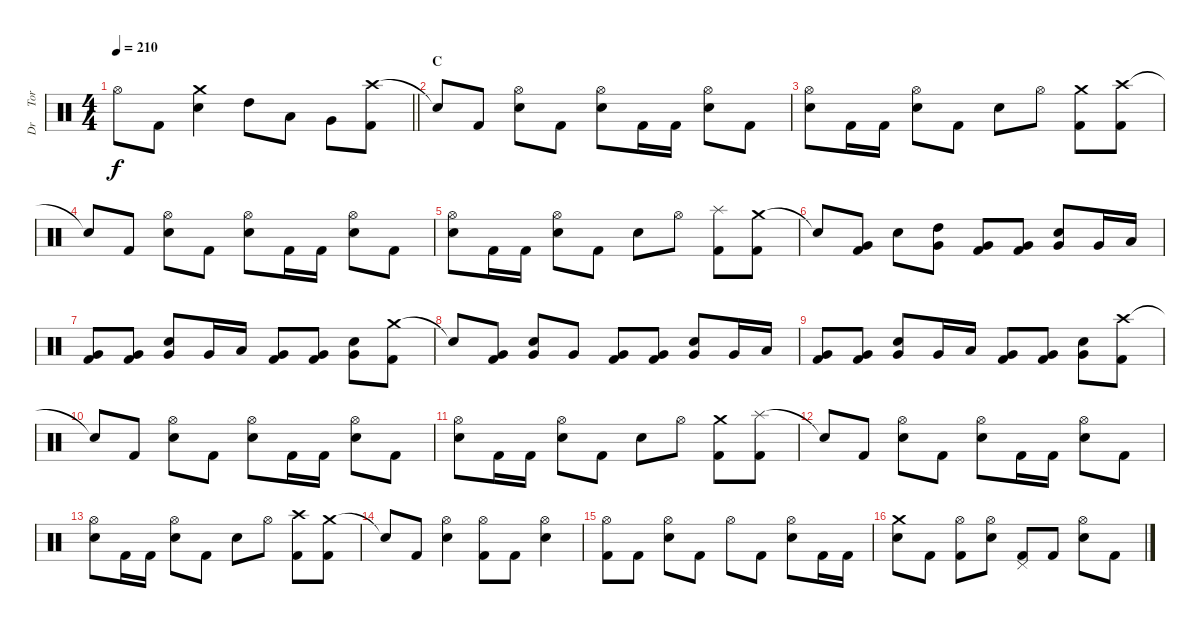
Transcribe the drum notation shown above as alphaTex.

\track ("Dr     Tora" "Dr     Tor") {instrument percussion}
\staff {score}
\articulation defaults
\ts (4 4)
\tempo 210
\clef neutral
\barLineRight lightlight
\ks c "Hi-Hat (open)".8{dy f} "Kick (hit) 2".8
("Crash medium (hit)" "Electric Snare (hit)").4 "High Tom (hit)".8 "Low Tom (hit)".8 "Very Low Tom (hit)".8 ("Crash high (hit)" "Kick (hit) 2").8 |
\section ("" "C")
"Snare (hit)"{t}.8 "Kick (hit) 2".8 ("Hi-Hat (open)" "Electric Snare (hit)").8 "Kick (hit) 2".8 ("Hi-Hat (open)" "Electric Snare (hit)").8 "Kick (hit) 2".16 "Kick (hit) 2".16 ("Hi-Hat (open)" "Electric Snare (hit)").8 "Kick (hit) 2".8 |
("Hi-Hat (open)" "Electric Snare (hit)").8 "Kick (hit) 2".16 "Kick (hit) 2".16 ("Hi-Hat (open)" "Electric Snare (hit)").8 "Kick (hit) 2".8 "Electric Snare (hit)".8 "Hi-Hat (open)".8 ("Crash medium (hit)" "Kick (hit) 2").8 ("Crash high (hit)" "Kick (hit) 2").8 |
"Snare (hit)"{t}.8 "Kick (hit) 2".8 ("Hi-Hat (open)" "Electric Snare (hit)").8 "Kick (hit) 2".8 ("Hi-Hat (open)" "Electric Snare (hit)").8 "Kick (hit) 2".16 "Kick (hit) 2".16 ("Hi-Hat (open)" "Electric Snare (hit)").8 "Kick (hit) 2".8 |
("Hi-Hat (open)" "Electric Snare (hit)").8 "Kick (hit) 2".16 "Kick (hit) 2".16 ("Hi-Hat (open)" "Electric Snare (hit)").8 "Kick (hit) 2".8 "Electric Snare (hit)".8 "Hi-Hat (open)".8 ("Splash (hit)" "Kick (hit) 2").8 ("Crash medium (hit)" "Kick (hit) 2").8 |
"Snare (hit)"{t}.8 ("Very Low Tom (hit)" "Kick (hit) 2").8 "Electric Snare (hit)".8 ("High Tom (hit)" "Very Low Tom (hit)").8 ("Very Low Tom (hit)" "Kick (hit) 2").8 ("Very Low Tom (hit)" "Kick (hit) 2").8 ("Electric Snare (hit)" "Very Low Tom (hit)").8 "Very Low Tom (hit)".16 "Low Tom (hit)".16 |
("Very Low Tom (hit)" "Kick (hit) 2").8 ("Very Low Tom (hit)" "Kick (hit) 2").8 ("Electric Snare (hit)" "Very Low Tom (hit)").8 "Very Low Tom (hit)".16 "Low Tom (hit)".16 ("Very Low Tom (hit)" "Kick (hit) 2").8 ("Very Low Tom (hit)" "Kick (hit) 2").8 ("Electric Snare (hit)" "Very Low Tom (hit)").8 ("Crash medium (hit)" "Kick (hit) 2").8 |
"Snare (hit)"{t}.8 ("Very Low Tom (hit)" "Kick (hit) 2").8 ("Electric Snare (hit)" "Very Low Tom (hit)").8 "Very Low Tom (hit)".8 ("Very Low Tom (hit)" "Kick (hit) 2").8 ("Very Low Tom (hit)" "Kick (hit) 2").8 ("Electric Snare (hit)" "Very Low Tom (hit)").8 "Very Low Tom (hit)".16 "Low Tom (hit)".16 |
("Very Low Tom (hit)" "Kick (hit) 2").8 ("Very Low Tom (hit)" "Kick (hit) 2").8 ("Electric Snare (hit)" "Very Low Tom (hit)").8 "Very Low Tom (hit)".16 "Low Tom (hit)".16 ("Very Low Tom (hit)" "Kick (hit) 2").8 ("Very Low Tom (hit)" "Kick (hit) 2").8 ("Electric Snare (hit)" "Very Low Tom (hit)").8 ("Crash high (hit)" "Kick (hit) 2").8 |
"Snare (hit)"{t}.8 "Kick (hit) 2".8 ("Hi-Hat (open)" "Electric Snare (hit)").8 "Kick (hit) 2".8 ("Hi-Hat (open)" "Electric Snare (hit)").8 "Kick (hit) 2".16 "Kick (hit) 2".16 ("Hi-Hat (open)" "Electric Snare (hit)").8 "Kick (hit) 2".8 |
("Hi-Hat (open)" "Electric Snare (hit)").8 "Kick (hit) 2".16 "Kick (hit) 2".16 ("Hi-Hat (open)" "Electric Snare (hit)").8 "Kick (hit) 2".8 "Electric Snare (hit)".8 "Hi-Hat (open)".8 ("Crash medium (hit)" "Kick (hit) 2").8 ("Splash (hit)" "Kick (hit) 2").8 |
"Snare (hit)"{t}.8 "Kick (hit) 2".8 ("Hi-Hat (open)" "Electric Snare (hit)").8 "Kick (hit) 2".8 ("Hi-Hat (open)" "Electric Snare (hit)").8 "Kick (hit) 2".16 "Kick (hit) 2".16 ("Hi-Hat (open)" "Electric Snare (hit)").8 "Kick (hit) 2".8 |
("Hi-Hat (open)" "Electric Snare (hit)").8 "Kick (hit) 2".16 "Kick (hit) 2".16 ("Hi-Hat (open)" "Electric Snare (hit)").8 "Kick (hit) 2".8 "Electric Snare (hit)".8 "Hi-Hat (open)".8 ("Crash high (hit)" "Kick (hit) 2").8 ("Crash medium (hit)" "Kick (hit) 2").8 |
"Snare (hit)"{t}.8 "Kick (hit) 2".8 ("Hi-Hat (open)" "Electric Snare (hit)").4 ("Hi-Hat (open)" "Kick (hit) 2").8 "Kick (hit) 2".8 ("Hi-Hat (open)" "Electric Snare (hit)").4 |
("Hi-Hat (open)" "Kick (hit) 2").8 "Kick (hit) 2".8 ("Hi-Hat (open)" "Electric Snare (hit)").8 "Kick (hit) 2".8 "Hi-Hat (open)".8 "Kick (hit) 2".8 ("Hi-Hat (open)" "Electric Snare (hit)").8 "Kick (hit) 2".16 "Kick (hit) 2".16 |
("Crash medium (hit)" "Electric Snare (hit)").8 "Kick (hit) 2".8 ("Hi-Hat (open)" "Kick (hit) 2").8 ("Hi-Hat (open)" "Electric Snare (hit)").8 ("Pedal Hi-Hat (hit)" "Kick (hit) 2").8 "Kick (hit) 2".8 ("Hi-Hat (open)" "Electric Snare (hit)").8 "Kick (hit) 2".8
